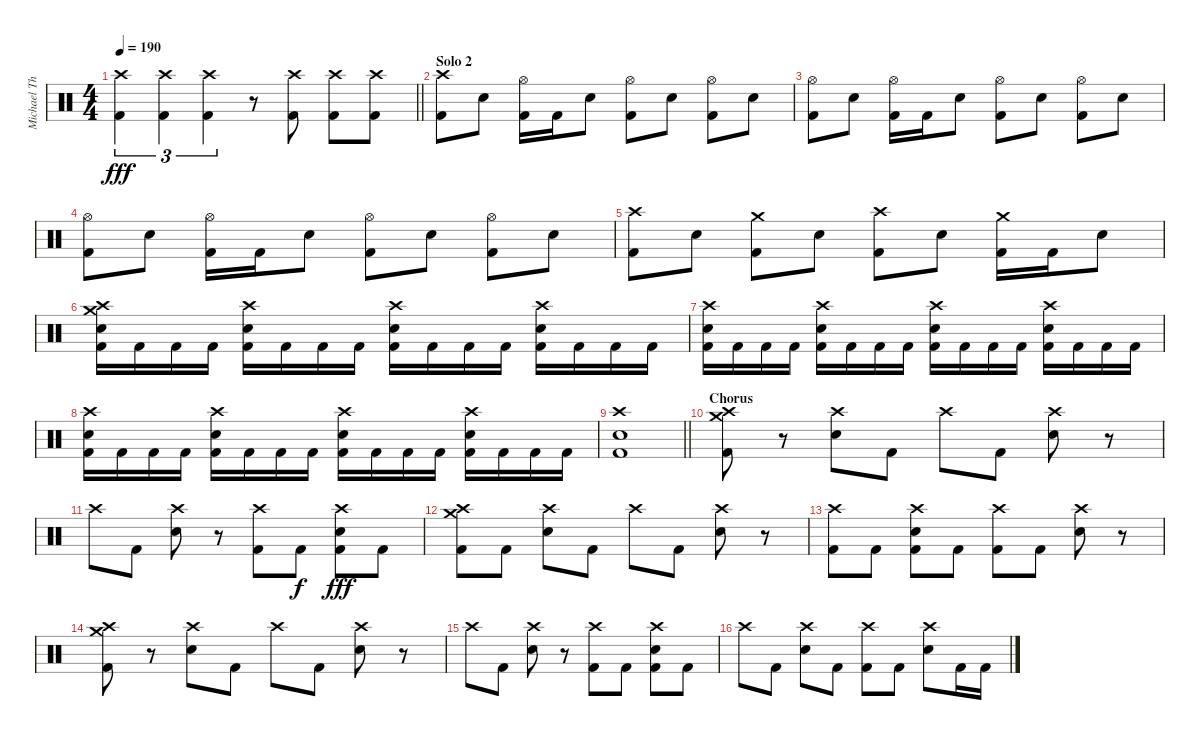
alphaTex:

\track ("Michael Thomas Жжёт!" "Michael Th") {instrument percussion}
\staff {score}
\articulation defaults
\ts (4 4)
\tempo 190
\clef neutral
\barLineRight lightlight
\ks c
("Crash high (hit)" "Kick (hit) 2").4{tu (3 2) dy fff} ("Crash high (hit)" "Kick (hit) 2").4{tu (3 2)} ("Crash high (hit)" "Kick (hit) 2").4{tu (3 2)} r.8 ("Crash high (hit)" "Kick (hit) 2").8 ("Crash high (hit)" "Kick (hit) 2").8 ("Crash high (hit)" "Kick (hit) 2").8 |
\section ("" "Solo 2")
("Crash high (hit)" "Kick (hit) 2").8 "Electric Snare (hit)".8 ("Hi-Hat (open)" "Kick (hit) 2").16 "Kick (hit) 2".16 "Electric Snare (hit)".8 ("Hi-Hat (open)" "Kick (hit) 2").8 "Electric Snare (hit)".8 ("Hi-Hat (open)" "Kick (hit) 2").8 "Electric Snare (hit)".8 |
("Hi-Hat (open)" "Kick (hit) 2").8 "Electric Snare (hit)".8 ("Hi-Hat (open)" "Kick (hit) 2").16 "Kick (hit) 2".16 "Electric Snare (hit)".8 ("Hi-Hat (open)" "Kick (hit) 2").8 "Electric Snare (hit)".8 ("Hi-Hat (open)" "Kick (hit) 2").8 "Electric Snare (hit)".8 |
("Hi-Hat (open)" "Kick (hit) 2").8 "Electric Snare (hit)".8 ("Hi-Hat (open)" "Kick (hit) 2").16 "Kick (hit) 2".16 "Electric Snare (hit)".8 ("Hi-Hat (open)" "Kick (hit) 2").8 "Electric Snare (hit)".8 ("Hi-Hat (open)" "Kick (hit) 2").8 "Electric Snare (hit)".8 |
("Crash high (hit)" "Kick (hit) 2").8 "Electric Snare (hit)".8 ("Crash medium (hit)" "Kick (hit) 2").8 "Electric Snare (hit)".8 ("Crash high (hit)" "Kick (hit) 2").8 "Electric Snare (hit)".8 ("Crash medium (hit)" "Kick (hit) 2").16 "Kick (hit) 2".16 "Electric Snare (hit)".8 |
("Crash high (hit)" "Crash medium (hit)" "Electric Snare (hit)" "Kick (hit) 2").16 "Kick (hit) 2".16 "Kick (hit) 2".16 "Kick (hit) 2".16 ("Crash high (hit)" "Electric Snare (hit)" "Kick (hit) 2").16 "Kick (hit) 2".16 "Kick (hit) 2".16 "Kick (hit) 2".16 ("Crash high (hit)" "Electric Snare (hit)" "Kick (hit) 2").16 "Kick (hit) 2".16 "Kick (hit) 2".16 "Kick (hit) 2".16 ("Crash high (hit)" "Electric Snare (hit)" "Kick (hit) 2").16 "Kick (hit) 2".16 "Kick (hit) 2".16 "Kick (hit) 2".16 |
("Crash high (hit)" "Electric Snare (hit)" "Kick (hit) 2").16 "Kick (hit) 2".16 "Kick (hit) 2".16 "Kick (hit) 2".16 ("Crash high (hit)" "Electric Snare (hit)" "Kick (hit) 2").16 "Kick (hit) 2".16 "Kick (hit) 2".16 "Kick (hit) 2".16 ("Crash high (hit)" "Electric Snare (hit)" "Kick (hit) 2").16 "Kick (hit) 2".16 "Kick (hit) 2".16 "Kick (hit) 2".16 ("Crash high (hit)" "Electric Snare (hit)" "Kick (hit) 2").16 "Kick (hit) 2".16 "Kick (hit) 2".16 "Kick (hit) 2".16 |
("Crash high (hit)" "Electric Snare (hit)" "Kick (hit) 2").16 "Kick (hit) 2".16 "Kick (hit) 2".16 "Kick (hit) 2".16 ("Crash high (hit)" "Electric Snare (hit)" "Kick (hit) 2").16 "Kick (hit) 2".16 "Kick (hit) 2".16 "Kick (hit) 2".16 ("Crash high (hit)" "Electric Snare (hit)" "Kick (hit) 2").16 "Kick (hit) 2".16 "Kick (hit) 2".16 "Kick (hit) 2".16 ("Crash high (hit)" "Electric Snare (hit)" "Kick (hit) 2").16 "Kick (hit) 2".16 "Kick (hit) 2".16 "Kick (hit) 2".16 |
\barLineRight lightlight
("Crash high (hit)" "Electric Snare (hit)" "Kick (hit) 2").1 |
\section ("" "Chorus")
("Crash high (hit)" "Crash medium (hit)" "Kick (hit) 2").8 r.8 ("Crash high (hit)" "Electric Snare (hit)").8 "Kick (hit) 2".8 "Crash high (hit)".8 "Kick (hit) 2".8 ("Crash high (hit)" "Electric Snare (hit)").8 r.8 |
"Crash high (hit)".8 "Kick (hit) 2".8 ("Crash high (hit)" "Electric Snare (hit)").8 r.8 ("Crash high (hit)" "Kick (hit) 2").8 "Kick (hit) 2".8{dy f} ("Crash high (hit)" "Electric Snare (hit)" "Kick (hit) 2").8{dy fff} "Kick (hit) 2".8 |
("Crash high (hit)" "Crash medium (hit)" "Kick (hit) 2").8 "Kick (hit) 2".8 ("Crash high (hit)" "Electric Snare (hit)").8 "Kick (hit) 2".8 "Crash high (hit)".8 "Kick (hit) 2".8 ("Crash high (hit)" "Electric Snare (hit)").8 r.8 |
("Crash high (hit)" "Kick (hit) 2").8 "Kick (hit) 2".8 ("Crash high (hit)" "Electric Snare (hit)" "Kick (hit) 2").8 "Kick (hit) 2".8 ("Crash high (hit)" "Kick (hit) 2").8 "Kick (hit) 2".8 ("Crash high (hit)" "Electric Snare (hit)").8 r.8 |
("Crash high (hit)" "Crash medium (hit)" "Kick (hit) 2").8 r.8 ("Crash high (hit)" "Electric Snare (hit)").8 "Kick (hit) 2".8 "Crash high (hit)".8 "Kick (hit) 2".8 ("Crash high (hit)" "Electric Snare (hit)").8 r.8 |
"Crash high (hit)".8 "Kick (hit) 2".8 ("Crash high (hit)" "Electric Snare (hit)").8 r.8 ("Crash high (hit)" "Kick (hit) 2").8 "Kick (hit) 2".8 ("Crash high (hit)" "Electric Snare (hit)" "Kick (hit) 2").8 "Kick (hit) 2".8 |
"Crash high (hit)".8 "Kick (hit) 2".8 ("Crash high (hit)" "Electric Snare (hit)").8 "Kick (hit) 2".8 ("Crash high (hit)" "Kick (hit) 2").8 "Kick (hit) 2".8 ("Crash high (hit)" "Electric Snare (hit)").8 "Kick (hit) 2".16 "Kick (hit) 2".16
